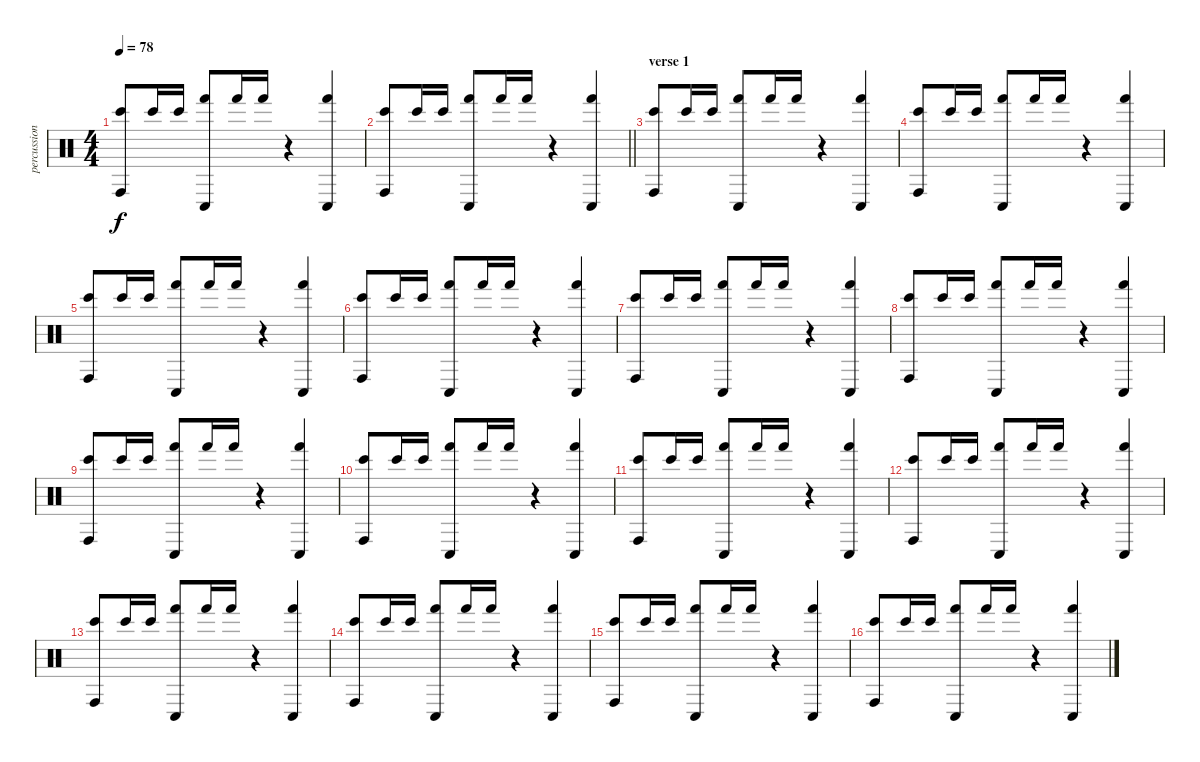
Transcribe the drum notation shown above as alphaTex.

\track ("percussion" "percussion") {instrument percussion}
\staff {score}
\articulation defaults
\ts (4 4)
\tempo 78
\clef neutral
\ks c
("Conga high (hit)" "Bongo High (hit)").8{dy f} "Bongo High (hit)".16 "Bongo High (hit)".16 ("Conga low (hit)" "Hand (hit)").8 "Hand (hit)".16 "Hand (hit)".16 r.4 ("Conga low (hit)" "Hand (hit)").4 |
\barLineRight lightlight
("Conga high (hit)" "Bongo High (hit)").8 "Bongo High (hit)".16 "Bongo High (hit)".16 ("Conga low (hit)" "Hand (hit)").8 "Hand (hit)".16 "Hand (hit)".16 r.4 ("Conga low (hit)" "Hand (hit)").4 |
\section ("" "verse 1")
("Conga high (hit)" "Bongo High (hit)").8 "Bongo High (hit)".16 "Bongo High (hit)".16 ("Conga low (hit)" "Hand (hit)").8 "Hand (hit)".16 "Hand (hit)".16 r.4 ("Conga low (hit)" "Hand (hit)").4 |
("Conga high (hit)" "Bongo High (hit)").8 "Bongo High (hit)".16 "Bongo High (hit)".16 ("Conga low (hit)" "Hand (hit)").8 "Hand (hit)".16 "Hand (hit)".16 r.4 ("Conga low (hit)" "Hand (hit)").4 |
("Conga high (hit)" "Bongo High (hit)").8 "Bongo High (hit)".16 "Bongo High (hit)".16 ("Conga low (hit)" "Hand (hit)").8 "Hand (hit)".16 "Hand (hit)".16 r.4 ("Conga low (hit)" "Hand (hit)").4 |
("Conga high (hit)" "Bongo High (hit)").8 "Bongo High (hit)".16 "Bongo High (hit)".16 ("Conga low (hit)" "Hand (hit)").8 "Hand (hit)".16 "Hand (hit)".16 r.4 ("Conga low (hit)" "Hand (hit)").4 |
("Conga high (hit)" "Bongo High (hit)").8 "Bongo High (hit)".16 "Bongo High (hit)".16 ("Conga low (hit)" "Hand (hit)").8 "Hand (hit)".16 "Hand (hit)".16 r.4 ("Conga low (hit)" "Hand (hit)").4 |
("Conga high (hit)" "Bongo High (hit)").8 "Bongo High (hit)".16 "Bongo High (hit)".16 ("Conga low (hit)" "Hand (hit)").8 "Hand (hit)".16 "Hand (hit)".16 r.4 ("Conga low (hit)" "Hand (hit)").4 |
("Conga high (hit)" "Bongo High (hit)").8 "Bongo High (hit)".16 "Bongo High (hit)".16 ("Conga low (hit)" "Hand (hit)").8 "Hand (hit)".16 "Hand (hit)".16 r.4 ("Conga low (hit)" "Hand (hit)").4 |
("Conga high (hit)" "Bongo High (hit)").8 "Bongo High (hit)".16 "Bongo High (hit)".16 ("Conga low (hit)" "Hand (hit)").8 "Hand (hit)".16 "Hand (hit)".16 r.4 ("Conga low (hit)" "Hand (hit)").4 |
("Conga high (hit)" "Bongo High (hit)").8 "Bongo High (hit)".16 "Bongo High (hit)".16 ("Conga low (hit)" "Hand (hit)").8 "Hand (hit)".16 "Hand (hit)".16 r.4 ("Conga low (hit)" "Hand (hit)").4 |
("Conga high (hit)" "Bongo High (hit)").8 "Bongo High (hit)".16 "Bongo High (hit)".16 ("Conga low (hit)" "Hand (hit)").8 "Hand (hit)".16 "Hand (hit)".16 r.4 ("Conga low (hit)" "Hand (hit)").4 |
("Conga high (hit)" "Bongo High (hit)").8 "Bongo High (hit)".16 "Bongo High (hit)".16 ("Conga low (hit)" "Hand (hit)").8 "Hand (hit)".16 "Hand (hit)".16 r.4 ("Conga low (hit)" "Hand (hit)").4 |
("Conga high (hit)" "Bongo High (hit)").8 "Bongo High (hit)".16 "Bongo High (hit)".16 ("Conga low (hit)" "Hand (hit)").8 "Hand (hit)".16 "Hand (hit)".16 r.4 ("Conga low (hit)" "Hand (hit)").4 |
("Conga high (hit)" "Bongo High (hit)").8 "Bongo High (hit)".16 "Bongo High (hit)".16 ("Conga low (hit)" "Hand (hit)").8 "Hand (hit)".16 "Hand (hit)".16 r.4 ("Conga low (hit)" "Hand (hit)").4 |
("Conga high (hit)" "Bongo High (hit)").8 "Bongo High (hit)".16 "Bongo High (hit)".16 ("Conga low (hit)" "Hand (hit)").8 "Hand (hit)".16 "Hand (hit)".16 r.4 ("Conga low (hit)" "Hand (hit)").4
